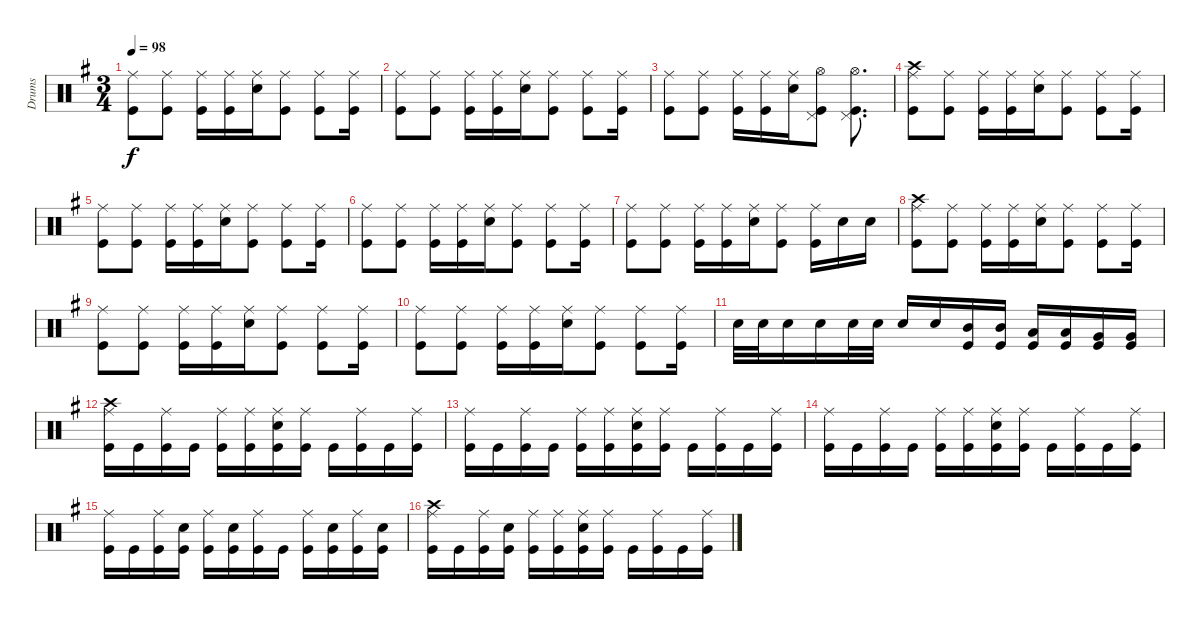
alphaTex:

\track ("Drums" "Drums") {instrument percussion}
\staff {score}
\articulation defaults
\ts (3 4)
\tempo 98
\clef neutral
\ks eminor
("Ride (middle)" "Kick (hit)").8{dy f} ("Ride (middle)" "Kick (hit)").8 ("Ride (middle)" "Kick (hit)").16 ("Ride (middle)" "Kick (hit)").16 ("Ride (middle)" "Electric Snare (hit)").16 ("Ride (middle)" "Kick (hit)").8 ("Ride (middle)" "Kick (hit)").8 ("Ride (middle)" "Kick (hit)").16 |
("Ride (middle)" "Kick (hit)").8 ("Ride (middle)" "Kick (hit)").8 ("Ride (middle)" "Kick (hit)").16 ("Ride (middle)" "Kick (hit)").16 ("Ride (middle)" "Electric Snare (hit)").16 ("Ride (middle)" "Kick (hit)").8 ("Ride (middle)" "Kick (hit)").8 ("Ride (middle)" "Kick (hit)").16 |
("Ride (middle)" "Kick (hit)").8 ("Ride (middle)" "Kick (hit)").8 ("Ride (middle)" "Kick (hit)").16 ("Ride (middle)" "Kick (hit)").16 ("Ride (middle)" "Electric Snare (hit)").16 ("Pedal Hi-Hat (hit)" "Hi-Hat (open)" "Kick (hit)").8 ("Pedal Hi-Hat (hit)" "Hi-Hat (open)" "Kick (hit)").8{d} |
("Crash high (hit)" "Ride (middle)" "Kick (hit)").8 ("Ride (middle)" "Kick (hit)").8 ("Ride (middle)" "Kick (hit)").16 ("Ride (middle)" "Kick (hit)").16 ("Ride (middle)" "Electric Snare (hit)").16 ("Ride (middle)" "Kick (hit)").8 ("Ride (middle)" "Kick (hit)").8 ("Ride (middle)" "Kick (hit)").16 |
("Ride (middle)" "Kick (hit)").8 ("Ride (middle)" "Kick (hit)").8 ("Ride (middle)" "Kick (hit)").16 ("Ride (middle)" "Kick (hit)").16 ("Ride (middle)" "Electric Snare (hit)").16 ("Ride (middle)" "Kick (hit)").8 ("Ride (middle)" "Kick (hit)").8 ("Ride (middle)" "Kick (hit)").16 |
("Ride (middle)" "Kick (hit)").8 ("Ride (middle)" "Kick (hit)").8 ("Ride (middle)" "Kick (hit)").16 ("Ride (middle)" "Kick (hit)").16 ("Ride (middle)" "Electric Snare (hit)").16 ("Ride (middle)" "Kick (hit)").8 ("Ride (middle)" "Kick (hit)").8 ("Ride (middle)" "Kick (hit)").16 |
("Ride (middle)" "Kick (hit)").8 ("Ride (middle)" "Kick (hit)").8 ("Ride (middle)" "Kick (hit)").16 ("Ride (middle)" "Kick (hit)").16 ("Ride (middle)" "Electric Snare (hit)").16 ("Ride (middle)" "Kick (hit)").8 ("Ride (middle)" "Kick (hit)").16 "Electric Snare (hit)".16 "Electric Snare (hit)".16 |
("Crash high (hit)" "Ride (middle)" "Kick (hit)").8 ("Ride (middle)" "Kick (hit)").8 ("Ride (middle)" "Kick (hit)").16 ("Ride (middle)" "Kick (hit)").16 ("Ride (middle)" "Electric Snare (hit)").16 ("Ride (middle)" "Kick (hit)").8 ("Ride (middle)" "Kick (hit)").8 ("Ride (middle)" "Kick (hit)").16 |
("Ride (middle)" "Kick (hit)").8 ("Ride (middle)" "Kick (hit)").8 ("Ride (middle)" "Kick (hit)").16 ("Ride (middle)" "Kick (hit)").16 ("Ride (middle)" "Electric Snare (hit)").16 ("Ride (middle)" "Kick (hit)").8 ("Ride (middle)" "Kick (hit)").8 ("Ride (middle)" "Kick (hit)").16 |
("Ride (middle)" "Kick (hit)").8 ("Ride (middle)" "Kick (hit)").8 ("Ride (middle)" "Kick (hit)").16 ("Ride (middle)" "Kick (hit)").16 ("Ride (middle)" "Electric Snare (hit)").16 ("Ride (middle)" "Kick (hit)").8 ("Ride (middle)" "Kick (hit)").8 ("Ride (middle)" "Kick (hit)").16 |
"Electric Snare (hit)".32 "Electric Snare (hit)".32 "Electric Snare (hit)".16 "Electric Snare (hit)".16 "Electric Snare (hit)".32 "Electric Snare (hit)".32 "Electric Snare (hit)".16 "Electric Snare (hit)".16 ("Mid Tom (hit)" "Kick (hit)").16 ("Mid Tom (hit)" "Kick (hit)").16 ("Low Tom (hit)" "Kick (hit)").16 ("Low Tom (hit)" "Kick (hit)").16 ("Very Low Tom (hit)" "Kick (hit)").16 ("Very Low Tom (hit)" "Kick (hit)").16 |
("Crash high (hit)" "Ride (middle)" "Kick (hit)").16 "Kick (hit)".16 ("Ride (middle)" "Kick (hit)").16 "Kick (hit)".16 ("Ride (middle)" "Kick (hit)").16 ("Ride (middle)" "Kick (hit)").16 ("Ride (middle)" "Electric Snare (hit)" "Kick (hit)").16 ("Ride (middle)" "Kick (hit)").16 "Kick (hit)".16 ("Ride (middle)" "Kick (hit)").16 "Kick (hit)".16 ("Ride (middle)" "Kick (hit)").16 |
("Ride (middle)" "Kick (hit)").16 "Kick (hit)".16 ("Ride (middle)" "Kick (hit)").16 "Kick (hit)".16 ("Ride (middle)" "Kick (hit)").16 ("Ride (middle)" "Kick (hit)").16 ("Ride (middle)" "Electric Snare (hit)" "Kick (hit)").16 ("Ride (middle)" "Kick (hit)").16 "Kick (hit)".16 ("Ride (middle)" "Kick (hit)").16 "Kick (hit)".16 ("Ride (middle)" "Kick (hit)").16 |
("Ride (middle)" "Kick (hit)").16 "Kick (hit)".16 ("Ride (middle)" "Kick (hit)").16 "Kick (hit)".16 ("Ride (middle)" "Kick (hit)").16 ("Ride (middle)" "Kick (hit)").16 ("Ride (middle)" "Electric Snare (hit)" "Kick (hit)").16 ("Ride (middle)" "Kick (hit)").16 "Kick (hit)".16 ("Ride (middle)" "Kick (hit)").16 "Kick (hit)".16 ("Ride (middle)" "Kick (hit)").16 |
("Ride (middle)" "Kick (hit)").16 "Kick (hit)".16 ("Ride (middle)" "Kick (hit)").16 ("Electric Snare (hit)" "Kick (hit)").16 ("Ride (middle)" "Kick (hit)").16 ("Electric Snare (hit)" "Kick (hit)").16 ("Ride (middle)" "Kick (hit)").16 "Kick (hit)".16 ("Ride (middle)" "Kick (hit)").16 ("Electric Snare (hit)" "Kick (hit)").16 ("Ride (middle)" "Kick (hit)").16 ("Electric Snare (hit)" "Kick (hit)").16 |
("Crash high (hit)" "Ride (middle)" "Kick (hit)").16 "Kick (hit)".16 ("Ride (middle)" "Kick (hit)").16 ("Electric Snare (hit)" "Kick (hit)").16 ("Ride (middle)" "Kick (hit)").16 ("Ride (middle)" "Kick (hit)").16 ("Ride (middle)" "Electric Snare (hit)" "Kick (hit)").16 ("Ride (middle)" "Kick (hit)").16 "Kick (hit)".16 ("Ride (middle)" "Kick (hit)").16 "Kick (hit)".16 ("Ride (middle)" "Kick (hit)").16
